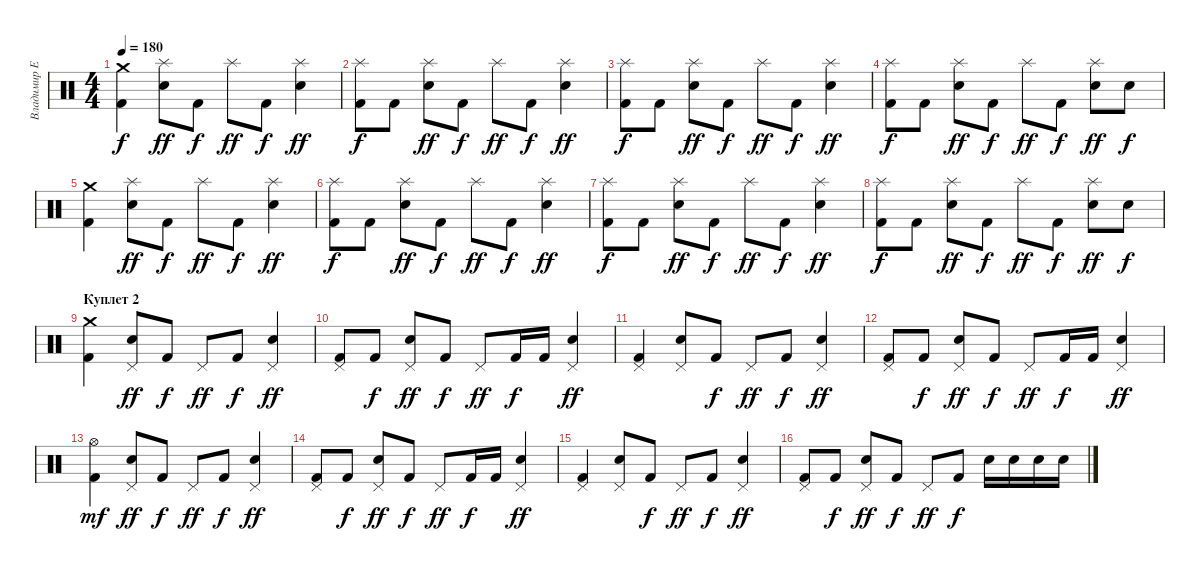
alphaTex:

\track ("Владимир Ермаков" "Владимир Е") {instrument percussion}
\staff {score}
\articulation defaults
\ts (4 4)
\tempo 180
\clef neutral
\ks c
("Crash medium (hit)" "Kick (hit) 2").4{dy f} ("Splash (hit)" "Electric Snare (hit)").8{dy ff} "Kick (hit) 2".8{dy f} "Splash (hit)".8{dy ff} "Kick (hit) 2".8{dy f} ("Splash (hit)" "Electric Snare (hit)").4{dy ff} |
("Splash (hit)" "Kick (hit) 2").8{dy f} "Kick (hit) 2".8 ("Splash (hit)" "Electric Snare (hit)").8{dy ff} "Kick (hit) 2".8{dy f} "Splash (hit)".8{dy ff} "Kick (hit) 2".8{dy f} ("Splash (hit)" "Electric Snare (hit)").4{dy ff} |
("Splash (hit)" "Kick (hit) 2").8{dy f} "Kick (hit) 2".8 ("Splash (hit)" "Electric Snare (hit)").8{dy ff} "Kick (hit) 2".8{dy f} "Splash (hit)".8{dy ff} "Kick (hit) 2".8{dy f} ("Splash (hit)" "Electric Snare (hit)").4{dy ff} |
("Splash (hit)" "Kick (hit) 2").8{dy f} "Kick (hit) 2".8 ("Splash (hit)" "Electric Snare (hit)").8{dy ff} "Kick (hit) 2".8{dy f} "Splash (hit)".8{dy ff} "Kick (hit) 2".8{dy f} ("Splash (hit)" "Electric Snare (hit)").8{dy ff} "Electric Snare (hit)".8{dy f} |
("Crash medium (hit)" "Kick (hit) 2").4 ("Splash (hit)" "Electric Snare (hit)").8{dy ff} "Kick (hit) 2".8{dy f} "Splash (hit)".8{dy ff} "Kick (hit) 2".8{dy f} ("Splash (hit)" "Electric Snare (hit)").4{dy ff} |
("Splash (hit)" "Kick (hit) 2").8{dy f} "Kick (hit) 2".8 ("Splash (hit)" "Electric Snare (hit)").8{dy ff} "Kick (hit) 2".8{dy f} "Splash (hit)".8{dy ff} "Kick (hit) 2".8{dy f} ("Splash (hit)" "Electric Snare (hit)").4{dy ff} |
("Splash (hit)" "Kick (hit) 2").8{dy f} "Kick (hit) 2".8 ("Splash (hit)" "Electric Snare (hit)").8{dy ff} "Kick (hit) 2".8{dy f} "Splash (hit)".8{dy ff} "Kick (hit) 2".8{dy f} ("Splash (hit)" "Electric Snare (hit)").4{dy ff} |
("Splash (hit)" "Kick (hit) 2").8{dy f} "Kick (hit) 2".8 ("Splash (hit)" "Electric Snare (hit)").8{dy ff} "Kick (hit) 2".8{dy f} "Splash (hit)".8{dy ff} "Kick (hit) 2".8{dy f} ("Splash (hit)" "Electric Snare (hit)").8{dy ff} "Electric Snare (hit)".8{dy f} |
\section ("" "Куплет 2")
("Crash medium (hit)" "Kick (hit) 2").4 ("Pedal Hi-Hat (hit)" "Electric Snare (hit)").8{dy ff} "Kick (hit) 2".8{dy f} "Pedal Hi-Hat (hit)".8{dy ff} "Kick (hit) 2".8{dy f} ("Pedal Hi-Hat (hit)" "Electric Snare (hit)").4{dy ff} |
("Pedal Hi-Hat (hit)" "Kick (hit) 2").8 "Kick (hit) 2".8{dy f} ("Pedal Hi-Hat (hit)" "Electric Snare (hit)").8{dy ff} "Kick (hit) 2".8{dy f} "Pedal Hi-Hat (hit)".8{dy ff} "Kick (hit) 2".16{dy f} "Kick (hit) 2".16 ("Pedal Hi-Hat (hit)" "Electric Snare (hit)").4{dy ff} |
("Pedal Hi-Hat (hit)" "Kick (hit) 2").4 ("Pedal Hi-Hat (hit)" "Electric Snare (hit)").8 "Kick (hit) 2".8{dy f} "Pedal Hi-Hat (hit)".8{dy ff} "Kick (hit) 2".8{dy f} ("Pedal Hi-Hat (hit)" "Electric Snare (hit)").4{dy ff} |
("Pedal Hi-Hat (hit)" "Kick (hit) 2").8 "Kick (hit) 2".8{dy f} ("Pedal Hi-Hat (hit)" "Electric Snare (hit)").8{dy ff} "Kick (hit) 2".8{dy f} "Pedal Hi-Hat (hit)".8{dy ff} "Kick (hit) 2".16{dy f} "Kick (hit) 2".16 ("Pedal Hi-Hat (hit)" "Electric Snare (hit)").4{dy ff} |
("Hi-Hat (open)" "Kick (hit) 2").4{dy mf} ("Pedal Hi-Hat (hit)" "Electric Snare (hit)").8{dy ff} "Kick (hit) 2".8{dy f} "Pedal Hi-Hat (hit)".8{dy ff} "Kick (hit) 2".8{dy f} ("Pedal Hi-Hat (hit)" "Electric Snare (hit)").4{dy ff} |
("Pedal Hi-Hat (hit)" "Kick (hit) 2").8 "Kick (hit) 2".8{dy f} ("Pedal Hi-Hat (hit)" "Electric Snare (hit)").8{dy ff} "Kick (hit) 2".8{dy f} "Pedal Hi-Hat (hit)".8{dy ff} "Kick (hit) 2".16{dy f} "Kick (hit) 2".16 ("Pedal Hi-Hat (hit)" "Electric Snare (hit)").4{dy ff} |
("Pedal Hi-Hat (hit)" "Kick (hit) 2").4 ("Pedal Hi-Hat (hit)" "Electric Snare (hit)").8 "Kick (hit) 2".8{dy f} "Pedal Hi-Hat (hit)".8{dy ff} "Kick (hit) 2".8{dy f} ("Pedal Hi-Hat (hit)" "Electric Snare (hit)").4{dy ff} |
("Pedal Hi-Hat (hit)" "Kick (hit) 2").8 "Kick (hit) 2".8{dy f} ("Pedal Hi-Hat (hit)" "Electric Snare (hit)").8{dy ff} "Kick (hit) 2".8{dy f} "Pedal Hi-Hat (hit)".8{dy ff} "Kick (hit) 2".8{dy f} "Electric Snare (hit)".16 "Electric Snare (hit)".16 "Electric Snare (hit)".16 "Electric Snare (hit)".16
